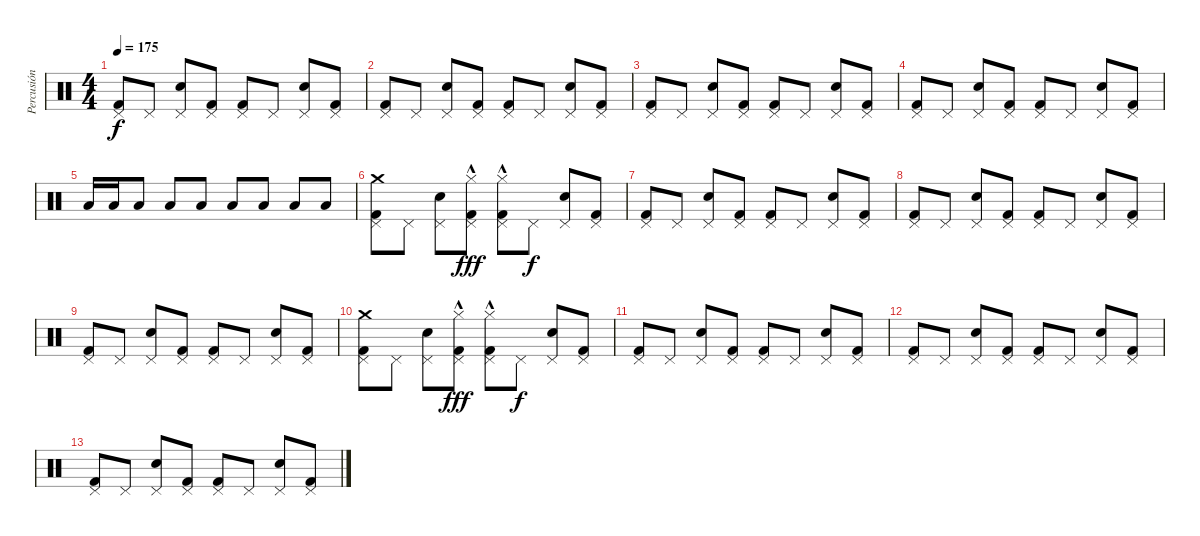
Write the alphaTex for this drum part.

\track ("Percusión" "Percusión") {instrument percussion}
\staff {score}
\articulation defaults
\ts (4 4)
\tempo 175
\clef neutral
\ks c
("Pedal Hi-Hat (hit)" "Kick (hit) 2").8{dy f} "Pedal Hi-Hat (hit)".8 ("Pedal Hi-Hat (hit)" "Electric Snare (hit)").8 ("Pedal Hi-Hat (hit)" "Kick (hit) 2").8 ("Pedal Hi-Hat (hit)" "Kick (hit) 2").8 "Pedal Hi-Hat (hit)".8 ("Pedal Hi-Hat (hit)" "Electric Snare (hit)").8 ("Pedal Hi-Hat (hit)" "Kick (hit) 2").8 |
("Pedal Hi-Hat (hit)" "Kick (hit) 2").8 "Pedal Hi-Hat (hit)".8 ("Pedal Hi-Hat (hit)" "Electric Snare (hit)").8 ("Pedal Hi-Hat (hit)" "Kick (hit) 2").8 ("Pedal Hi-Hat (hit)" "Kick (hit) 2").8 "Pedal Hi-Hat (hit)".8 ("Pedal Hi-Hat (hit)" "Electric Snare (hit)").8 ("Pedal Hi-Hat (hit)" "Kick (hit) 2").8 |
("Pedal Hi-Hat (hit)" "Kick (hit) 2").8 "Pedal Hi-Hat (hit)".8 ("Pedal Hi-Hat (hit)" "Electric Snare (hit)").8 ("Pedal Hi-Hat (hit)" "Kick (hit) 2").8 ("Pedal Hi-Hat (hit)" "Kick (hit) 2").8 "Pedal Hi-Hat (hit)".8 ("Pedal Hi-Hat (hit)" "Electric Snare (hit)").8 ("Pedal Hi-Hat (hit)" "Kick (hit) 2").8 |
("Pedal Hi-Hat (hit)" "Kick (hit) 2").8 "Pedal Hi-Hat (hit)".8 ("Pedal Hi-Hat (hit)" "Electric Snare (hit)").8 ("Pedal Hi-Hat (hit)" "Kick (hit) 2").8 ("Pedal Hi-Hat (hit)" "Kick (hit) 2").8 "Pedal Hi-Hat (hit)".8 ("Pedal Hi-Hat (hit)" "Electric Snare (hit)").8 ("Pedal Hi-Hat (hit)" "Kick (hit) 2").8 |
"Low Tom (hit)".16 "Low Tom (hit)".16 "Low Tom (hit)".8 "Low Tom (hit)".8 "Low Tom (hit)".8 "Low Tom (hit)".8 "Low Tom (hit)".8 "Low Tom (hit)".8 "Low Tom (hit)".8 |
("Pedal Hi-Hat (hit)" "Crash medium (hit)" "Kick (hit) 2").8 "Pedal Hi-Hat (hit)".8 ("Pedal Hi-Hat (hit)" "Electric Snare (hit)").8 ("Pedal Hi-Hat (hit)" "Hi-Hat (closed)"{hac} "Kick (hit) 2").8{dy fff} ("Pedal Hi-Hat (hit)" "Hi-Hat (closed)"{hac} "Kick (hit) 2").8 "Pedal Hi-Hat (hit)".8{dy f} ("Pedal Hi-Hat (hit)" "Electric Snare (hit)").8 ("Pedal Hi-Hat (hit)" "Kick (hit) 2").8 |
("Pedal Hi-Hat (hit)" "Kick (hit) 2").8 "Pedal Hi-Hat (hit)".8 ("Pedal Hi-Hat (hit)" "Electric Snare (hit)").8 ("Pedal Hi-Hat (hit)" "Kick (hit) 2").8 ("Pedal Hi-Hat (hit)" "Kick (hit) 2").8 "Pedal Hi-Hat (hit)".8 ("Pedal Hi-Hat (hit)" "Electric Snare (hit)").8 ("Pedal Hi-Hat (hit)" "Kick (hit) 2").8 |
("Pedal Hi-Hat (hit)" "Kick (hit) 2").8 "Pedal Hi-Hat (hit)".8 ("Pedal Hi-Hat (hit)" "Electric Snare (hit)").8 ("Pedal Hi-Hat (hit)" "Kick (hit) 2").8 ("Pedal Hi-Hat (hit)" "Kick (hit) 2").8 "Pedal Hi-Hat (hit)".8 ("Pedal Hi-Hat (hit)" "Electric Snare (hit)").8 ("Pedal Hi-Hat (hit)" "Kick (hit) 2").8 |
("Pedal Hi-Hat (hit)" "Kick (hit) 2").8 "Pedal Hi-Hat (hit)".8 ("Pedal Hi-Hat (hit)" "Electric Snare (hit)").8 ("Pedal Hi-Hat (hit)" "Kick (hit) 2").8 ("Pedal Hi-Hat (hit)" "Kick (hit) 2").8 "Pedal Hi-Hat (hit)".8 ("Pedal Hi-Hat (hit)" "Electric Snare (hit)").8 ("Pedal Hi-Hat (hit)" "Kick (hit) 2").8 |
("Pedal Hi-Hat (hit)" "Crash medium (hit)" "Kick (hit) 2").8 "Pedal Hi-Hat (hit)".8 ("Pedal Hi-Hat (hit)" "Electric Snare (hit)").8 ("Pedal Hi-Hat (hit)" "Hi-Hat (closed)"{hac} "Kick (hit) 2").8{dy fff} ("Pedal Hi-Hat (hit)" "Hi-Hat (closed)"{hac} "Kick (hit) 2").8 "Pedal Hi-Hat (hit)".8{dy f} ("Pedal Hi-Hat (hit)" "Electric Snare (hit)").8 ("Pedal Hi-Hat (hit)" "Kick (hit) 2").8 |
("Pedal Hi-Hat (hit)" "Kick (hit) 2").8 "Pedal Hi-Hat (hit)".8 ("Pedal Hi-Hat (hit)" "Electric Snare (hit)").8 ("Pedal Hi-Hat (hit)" "Kick (hit) 2").8 ("Pedal Hi-Hat (hit)" "Kick (hit) 2").8 "Pedal Hi-Hat (hit)".8 ("Pedal Hi-Hat (hit)" "Electric Snare (hit)").8 ("Pedal Hi-Hat (hit)" "Kick (hit) 2").8 |
("Pedal Hi-Hat (hit)" "Kick (hit) 2").8 "Pedal Hi-Hat (hit)".8 ("Pedal Hi-Hat (hit)" "Electric Snare (hit)").8 ("Pedal Hi-Hat (hit)" "Kick (hit) 2").8 ("Pedal Hi-Hat (hit)" "Kick (hit) 2").8 "Pedal Hi-Hat (hit)".8 ("Pedal Hi-Hat (hit)" "Electric Snare (hit)").8 ("Pedal Hi-Hat (hit)" "Kick (hit) 2").8 |
("Pedal Hi-Hat (hit)" "Kick (hit) 2").8 "Pedal Hi-Hat (hit)".8 ("Pedal Hi-Hat (hit)" "Electric Snare (hit)").8 ("Pedal Hi-Hat (hit)" "Kick (hit) 2").8 ("Pedal Hi-Hat (hit)" "Kick (hit) 2").8 "Pedal Hi-Hat (hit)".8 ("Pedal Hi-Hat (hit)" "Electric Snare (hit)").8 ("Pedal Hi-Hat (hit)" "Kick (hit) 2").8
